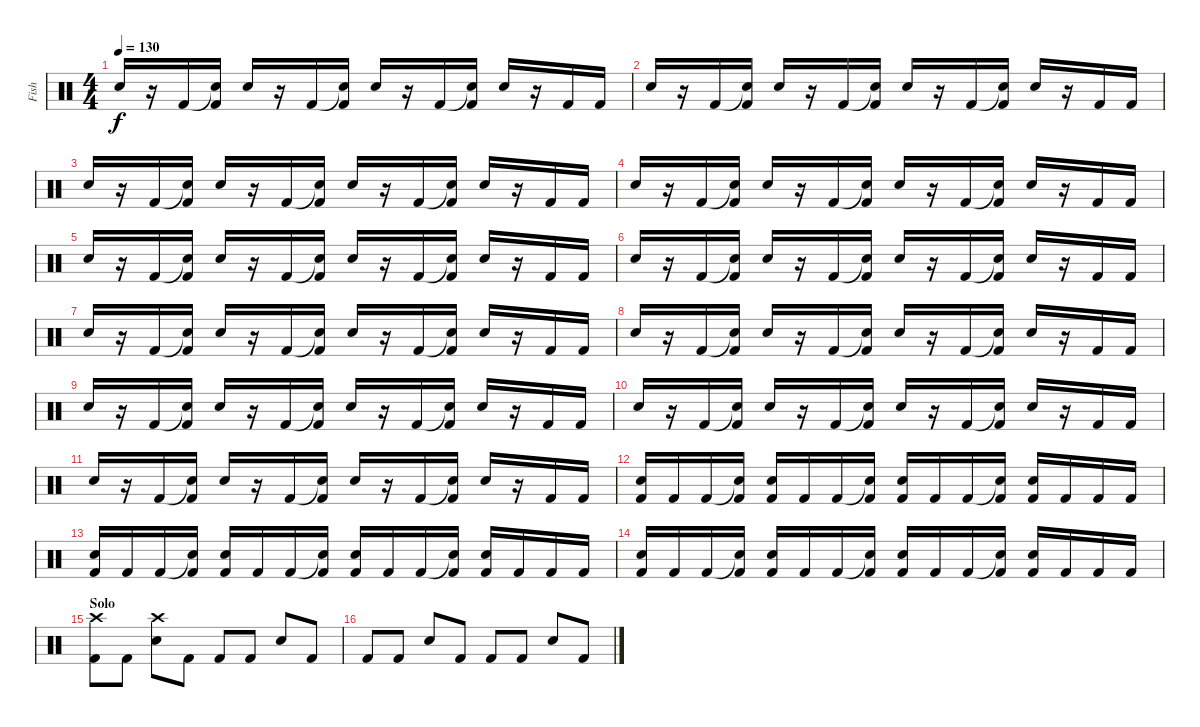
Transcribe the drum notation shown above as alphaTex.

\track ("Fish" "Fish") {instrument percussion}
\staff {score}
\articulation defaults
\ts (4 4)
\tempo 130
\clef neutral
\ks c "Snare (hit) 2".16{dy f}
r.16 "Kick (hit) 2".16 ("Snare (hit) 2"{t} "Kick (hit) 2").16 "Snare (hit) 2".16 r.16 "Kick (hit) 2".16 ("Snare (hit) 2"{t} "Kick (hit) 2").16 "Snare (hit) 2".16 r.16 "Kick (hit) 2".16 ("Snare (hit) 2"{t} "Kick (hit) 2").16 "Snare (hit) 2".16 r.16 "Kick (hit) 2".16 "Kick (hit) 2".16 |
"Snare (hit) 2".16 r.16 "Kick (hit) 2".16 ("Snare (hit) 2"{t} "Kick (hit) 2").16 "Snare (hit) 2".16 r.16 "Kick (hit) 2".16 ("Snare (hit) 2"{t} "Kick (hit) 2").16 "Snare (hit) 2".16 r.16 "Kick (hit) 2".16 ("Snare (hit) 2"{t} "Kick (hit) 2").16 "Snare (hit) 2".16 r.16 "Kick (hit) 2".16 "Kick (hit) 2".16 |
"Snare (hit) 2".16 r.16 "Kick (hit) 2".16 ("Snare (hit) 2"{t} "Kick (hit) 2").16 "Snare (hit) 2".16 r.16 "Kick (hit) 2".16 ("Snare (hit) 2"{t} "Kick (hit) 2").16 "Snare (hit) 2".16 r.16 "Kick (hit) 2".16 ("Snare (hit) 2"{t} "Kick (hit) 2").16 "Snare (hit) 2".16 r.16 "Kick (hit) 2".16 "Kick (hit) 2".16 |
"Snare (hit) 2".16 r.16 "Kick (hit) 2".16 ("Snare (hit) 2"{t} "Kick (hit) 2").16 "Snare (hit) 2".16 r.16 "Kick (hit) 2".16 ("Snare (hit) 2"{t} "Kick (hit) 2").16 "Snare (hit) 2".16 r.16 "Kick (hit) 2".16 ("Snare (hit) 2"{t} "Kick (hit) 2").16 "Snare (hit) 2".16 r.16 "Kick (hit) 2".16 "Kick (hit) 2".16 |
"Snare (hit) 2".16 r.16 "Kick (hit) 2".16 ("Snare (hit) 2"{t} "Kick (hit) 2").16 "Snare (hit) 2".16 r.16 "Kick (hit) 2".16 ("Snare (hit) 2"{t} "Kick (hit) 2").16 "Snare (hit) 2".16 r.16 "Kick (hit) 2".16 ("Snare (hit) 2"{t} "Kick (hit) 2").16 "Snare (hit) 2".16 r.16 "Kick (hit) 2".16 "Kick (hit) 2".16 |
"Snare (hit) 2".16 r.16 "Kick (hit) 2".16 ("Snare (hit) 2"{t} "Kick (hit) 2").16 "Snare (hit) 2".16 r.16 "Kick (hit) 2".16 ("Snare (hit) 2"{t} "Kick (hit) 2").16 "Snare (hit) 2".16 r.16 "Kick (hit) 2".16 ("Snare (hit) 2"{t} "Kick (hit) 2").16 "Snare (hit) 2".16 r.16 "Kick (hit) 2".16 "Kick (hit) 2".16 |
"Snare (hit) 2".16 r.16 "Kick (hit) 2".16 ("Snare (hit) 2"{t} "Kick (hit) 2").16 "Snare (hit) 2".16 r.16 "Kick (hit) 2".16 ("Snare (hit) 2"{t} "Kick (hit) 2").16 "Snare (hit) 2".16 r.16 "Kick (hit) 2".16 ("Snare (hit) 2"{t} "Kick (hit) 2").16 "Snare (hit) 2".16 r.16 "Kick (hit) 2".16 "Kick (hit) 2".16 |
"Snare (hit) 2".16 r.16 "Kick (hit) 2".16 ("Snare (hit) 2"{t} "Kick (hit) 2").16 "Snare (hit) 2".16 r.16 "Kick (hit) 2".16 ("Snare (hit) 2"{t} "Kick (hit) 2").16 "Snare (hit) 2".16 r.16 "Kick (hit) 2".16 ("Snare (hit) 2"{t} "Kick (hit) 2").16 "Snare (hit) 2".16 r.16 "Kick (hit) 2".16 "Kick (hit) 2".16 |
"Snare (hit) 2".16 r.16 "Kick (hit) 2".16 ("Snare (hit) 2"{t} "Kick (hit) 2").16 "Snare (hit) 2".16 r.16 "Kick (hit) 2".16 ("Snare (hit) 2"{t} "Kick (hit) 2").16 "Snare (hit) 2".16 r.16 "Kick (hit) 2".16 ("Snare (hit) 2"{t} "Kick (hit) 2").16 "Snare (hit) 2".16 r.16 "Kick (hit) 2".16 "Kick (hit) 2".16 |
"Snare (hit) 2".16 r.16 "Kick (hit) 2".16 ("Snare (hit) 2"{t} "Kick (hit) 2").16 "Snare (hit) 2".16 r.16 "Kick (hit) 2".16 ("Snare (hit) 2"{t} "Kick (hit) 2").16 "Snare (hit) 2".16 r.16 "Kick (hit) 2".16 ("Snare (hit) 2"{t} "Kick (hit) 2").16 "Snare (hit) 2".16 r.16 "Kick (hit) 2".16 "Kick (hit) 2".16 |
"Snare (hit) 2".16 r.16 "Kick (hit) 2".16 ("Snare (hit) 2"{t} "Kick (hit) 2").16 "Snare (hit) 2".16 r.16 "Kick (hit) 2".16 ("Snare (hit) 2"{t} "Kick (hit) 2").16 "Snare (hit) 2".16 r.16 "Kick (hit) 2".16 ("Snare (hit) 2"{t} "Kick (hit) 2").16 "Snare (hit) 2".16 r.16 "Kick (hit) 2".16 "Kick (hit) 2".16 |
("Snare (hit) 2" "Kick (hit) 2").16 "Kick (hit) 2".16 "Kick (hit) 2".16 ("Snare (hit) 2"{t} "Kick (hit) 2").16 ("Snare (hit) 2" "Kick (hit) 2").16 "Kick (hit) 2".16 "Kick (hit) 2".16 ("Snare (hit) 2"{t} "Kick (hit) 2").16 ("Snare (hit) 2" "Kick (hit) 2").16 "Kick (hit) 2".16 "Kick (hit) 2".16 ("Snare (hit) 2"{t} "Kick (hit) 2").16 ("Snare (hit) 2" "Kick (hit) 2").16 "Kick (hit) 2".16 "Kick (hit) 2".16 "Kick (hit) 2".16 |
("Snare (hit) 2" "Kick (hit) 2").16 "Kick (hit) 2".16 "Kick (hit) 2".16 ("Snare (hit) 2"{t} "Kick (hit) 2").16 ("Snare (hit) 2" "Kick (hit) 2").16 "Kick (hit) 2".16 "Kick (hit) 2".16 ("Snare (hit) 2"{t} "Kick (hit) 2").16 ("Snare (hit) 2" "Kick (hit) 2").16 "Kick (hit) 2".16 "Kick (hit) 2".16 ("Snare (hit) 2"{t} "Kick (hit) 2").16 ("Snare (hit) 2" "Kick (hit) 2").16 "Kick (hit) 2".16 "Kick (hit) 2".16 "Kick (hit) 2".16 |
("Snare (hit) 2" "Kick (hit) 2").16 "Kick (hit) 2".16 "Kick (hit) 2".16 ("Snare (hit) 2"{t} "Kick (hit) 2").16 ("Snare (hit) 2" "Kick (hit) 2").16 "Kick (hit) 2".16 "Kick (hit) 2".16 ("Snare (hit) 2"{t} "Kick (hit) 2").16 ("Snare (hit) 2" "Kick (hit) 2").16 "Kick (hit) 2".16 "Kick (hit) 2".16 ("Snare (hit) 2"{t} "Kick (hit) 2").16 ("Snare (hit) 2" "Kick (hit) 2").16 "Kick (hit) 2".16 "Kick (hit) 2".16 "Kick (hit) 2".16 |
\section ("" "Solo")
("Crash high (hit)" "Kick (hit) 2").8 "Kick (hit) 2".8 ("Crash high (hit)" "Snare (hit) 2").8 "Kick (hit) 2".8 "Kick (hit) 2".8 "Kick (hit) 2".8 "Snare (hit) 2".8 "Kick (hit) 2".8 |
"Kick (hit) 2".8 "Kick (hit) 2".8 "Snare (hit) 2".8 "Kick (hit) 2".8 "Kick (hit) 2".8 "Kick (hit) 2".8 "Snare (hit) 2".8 "Kick (hit) 2".8
